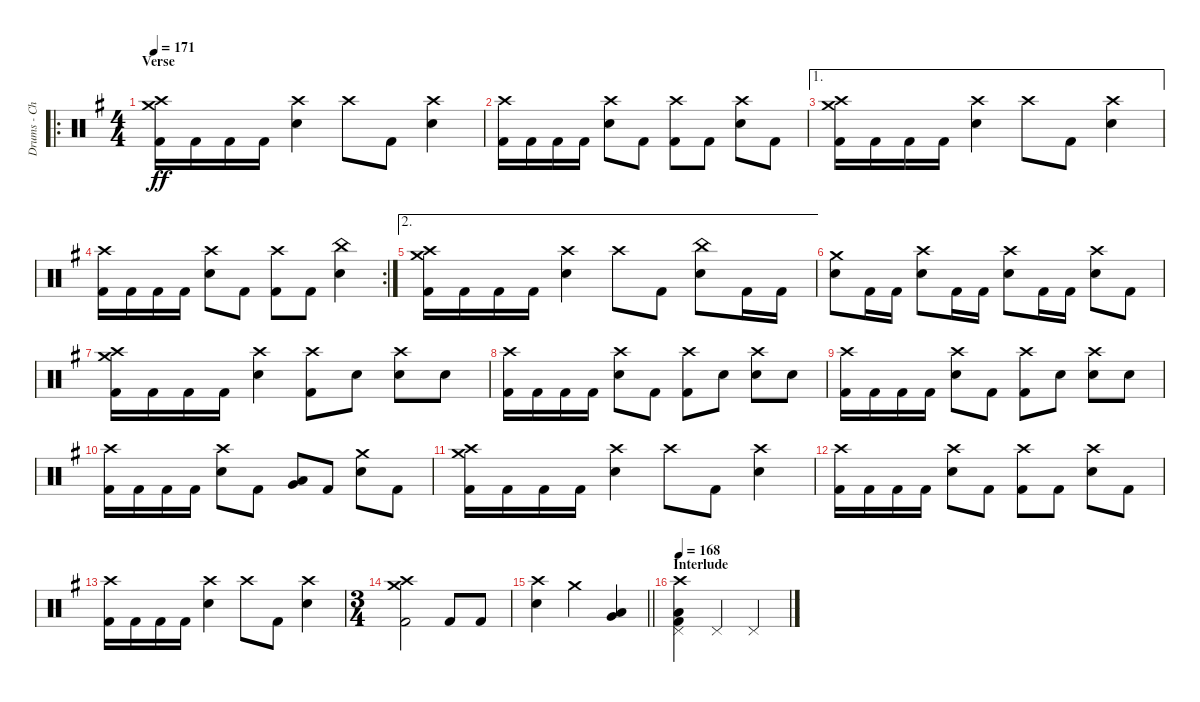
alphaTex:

\track ("Drums - Chris Hornbrook" "Drums - Ch") {instrument percussion}
\staff {score}
\articulation defaults
\ro
\ts (4 4)
\section ("" "Verse")
\tempo 171
\clef neutral
\ks eminor
("Crash medium (hit)" "Crash high (hit)" "Kick (hit) 2").16{dy ff} "Kick (hit) 2".16 "Kick (hit) 2".16 "Kick (hit) 2".16 ("Crash high (hit)" "Electric Snare (hit)").4 "Crash high (hit)".8 "Kick (hit) 2".8 ("Crash high (hit)" "Electric Snare (hit)").4 |
("Crash high (hit)" "Kick (hit) 2").16 "Kick (hit) 2".16 "Kick (hit) 2".16 "Kick (hit) 2".16 ("Crash high (hit)" "Electric Snare (hit)").8 "Kick (hit) 2".8 ("Crash high (hit)" "Kick (hit) 2").8 "Kick (hit) 2".8 ("Crash high (hit)" "Electric Snare (hit)").8 "Kick (hit) 2".8 |
\ae 1
("Crash medium (hit)" "Crash high (hit)" "Kick (hit) 2").16 "Kick (hit) 2".16 "Kick (hit) 2".16 "Kick (hit) 2".16 ("Crash high (hit)" "Electric Snare (hit)").4 "Crash high (hit)".8 "Kick (hit) 2".8 ("Crash high (hit)" "Electric Snare (hit)").4 |
\rc 2
("Crash high (hit)" "Kick (hit) 2").16 "Kick (hit) 2".16 "Kick (hit) 2".16 "Kick (hit) 2".16 ("Crash high (hit)" "Electric Snare (hit)").8 "Kick (hit) 2".8 ("Crash high (hit)" "Kick (hit) 2").8 "Kick (hit) 2".8 ("China (hit)" "Electric Snare (hit)").4 |
\ae 2
("Crash medium (hit)" "Crash high (hit)" "Kick (hit) 2").16 "Kick (hit) 2".16 "Kick (hit) 2".16 "Kick (hit) 2".16 ("Crash high (hit)" "Electric Snare (hit)").4 "Crash high (hit)".8 "Kick (hit) 2".8 ("China (hit)" "Electric Snare (hit)").8 "Kick (hit) 2".16 "Kick (hit) 2".16 |
("Crash medium (hit)" "Electric Snare (hit)").8 "Kick (hit) 2".16 "Kick (hit) 2".16 ("Crash high (hit)" "Electric Snare (hit)").8 "Kick (hit) 2".16 "Kick (hit) 2".16 ("Crash high (hit)" "Electric Snare (hit)").8 "Kick (hit) 2".16 "Kick (hit) 2".16 ("Crash high (hit)" "Electric Snare (hit)").8 "Kick (hit) 2".8 |
("Crash medium (hit)" "Crash high (hit)" "Kick (hit) 2").16 "Kick (hit) 2".16 "Kick (hit) 2".16 "Kick (hit) 2".16 ("Crash high (hit)" "Electric Snare (hit)").4 ("Crash high (hit)" "Kick (hit) 2").8 "Electric Snare (hit)".8 ("Crash high (hit)" "Electric Snare (hit)").8 "Electric Snare (hit)".8 |
("Crash high (hit)" "Kick (hit) 2").16 "Kick (hit) 2".16 "Kick (hit) 2".16 "Kick (hit) 2".16 ("Crash high (hit)" "Electric Snare (hit)").8 "Kick (hit) 2".8 ("Crash high (hit)" "Kick (hit) 2").8 "Electric Snare (hit)".8 ("Crash high (hit)" "Electric Snare (hit)").8 "Electric Snare (hit)".8 |
("Crash high (hit)" "Kick (hit) 2").16 "Kick (hit) 2".16 "Kick (hit) 2".16 "Kick (hit) 2".16 ("Crash high (hit)" "Electric Snare (hit)").8 "Kick (hit) 2".8 ("Crash high (hit)" "Kick (hit) 2").8 "Electric Snare (hit)".8 ("Crash high (hit)" "Electric Snare (hit)").8 "Electric Snare (hit)".8 |
("Crash high (hit)" "Kick (hit) 2").16 "Kick (hit) 2".16 "Kick (hit) 2".16 "Kick (hit) 2".16 ("Crash high (hit)" "Electric Snare (hit)").8 "Kick (hit) 2".8 ("Low Tom (hit)" "Very Low Tom (hit)").8{bu 120} "Kick (hit) 2".8 ("Crash medium (hit)" "Electric Snare (hit)").8 "Kick (hit) 2".8 |
("Crash medium (hit)" "Crash high (hit)" "Kick (hit) 2").16 "Kick (hit) 2".16 "Kick (hit) 2".16 "Kick (hit) 2".16 ("Crash high (hit)" "Electric Snare (hit)").4 "Crash high (hit)".8 "Kick (hit) 2".8 ("Crash high (hit)" "Electric Snare (hit)").4 |
("Crash high (hit)" "Kick (hit) 2").16 "Kick (hit) 2".16 "Kick (hit) 2".16 "Kick (hit) 2".16 ("Crash high (hit)" "Electric Snare (hit)").8 "Kick (hit) 2".8 ("Crash high (hit)" "Kick (hit) 2").8 "Kick (hit) 2".8 ("Crash high (hit)" "Electric Snare (hit)").8 "Kick (hit) 2".8 |
("Crash high (hit)" "Kick (hit) 2").16 "Kick (hit) 2".16 "Kick (hit) 2".16 "Kick (hit) 2".16 ("Crash high (hit)" "Electric Snare (hit)").4 "Crash high (hit)".8 "Kick (hit) 2".8 ("Crash high (hit)" "Electric Snare (hit)").4 |
\ts (3 4)
("Crash medium (hit)" "Crash high (hit)" "Kick (hit) 2").2 "Kick (hit) 2".8 "Kick (hit) 2".8 |
\barLineRight lightlight
("Crash high (hit)" "Electric Snare (hit)").4 "Crash medium (hit)".4 ("Low Tom (hit)" "Very Low Tom (hit)").4{bu 120} |
\section ("" "Interlude")
\tempo 168
("Crash high (hit)" "Pedal Hi-Hat (hit)" "Low Floor Tom (hit)" "Kick (hit) 2").4 "Pedal Hi-Hat (hit)".4 "Pedal Hi-Hat (hit)".4
